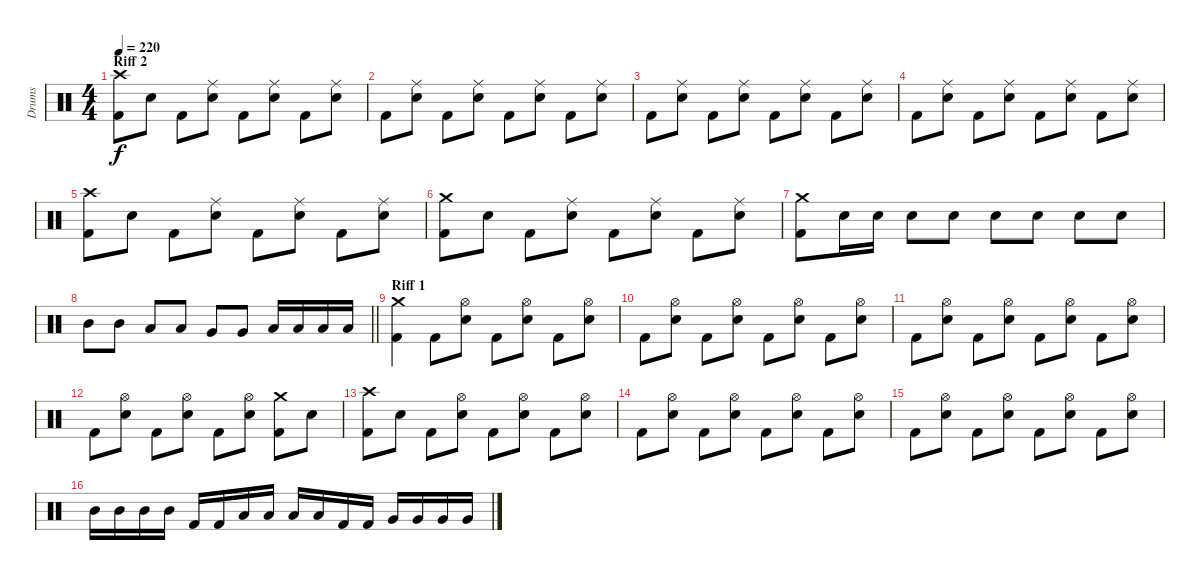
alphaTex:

\track ("Drums" "Drums") {instrument percussion}
\staff {score}
\articulation defaults
\ts (4 4)
\section ("" "Riff 2")
\tempo 220
\clef neutral
\ks c
("Kick (hit) 2" "Crash high (hit)").8{dy f} "Electric Snare (hit)".8 "Kick (hit) 2".8 ("Electric Snare (hit)" "Ride (middle)").8 "Kick (hit) 2".8 ("Electric Snare (hit)" "Ride (middle)").8 "Kick (hit) 2".8 ("Electric Snare (hit)" "Ride (middle)").8 |
"Kick (hit) 2".8 ("Electric Snare (hit)" "Ride (middle)").8 "Kick (hit) 2".8 ("Electric Snare (hit)" "Ride (middle)").8 "Kick (hit) 2".8 ("Electric Snare (hit)" "Ride (middle)").8 "Kick (hit) 2".8 ("Electric Snare (hit)" "Ride (middle)").8 |
"Kick (hit) 2".8 ("Electric Snare (hit)" "Ride (middle)").8 "Kick (hit) 2".8 ("Electric Snare (hit)" "Ride (middle)").8 "Kick (hit) 2".8 ("Electric Snare (hit)" "Ride (middle)").8 "Kick (hit) 2".8 ("Electric Snare (hit)" "Ride (middle)").8 |
"Kick (hit) 2".8 ("Electric Snare (hit)" "Ride (middle)").8 "Kick (hit) 2".8 ("Electric Snare (hit)" "Ride (middle)").8 "Kick (hit) 2".8 ("Electric Snare (hit)" "Ride (middle)").8 "Kick (hit) 2".8 ("Electric Snare (hit)" "Ride (middle)").8 |
("Kick (hit) 2" "Crash high (hit)").8 "Electric Snare (hit)".8 "Kick (hit) 2".8 ("Electric Snare (hit)" "Ride (middle)").8 "Kick (hit) 2".8 ("Electric Snare (hit)" "Ride (middle)").8 "Kick (hit) 2".8 ("Electric Snare (hit)" "Ride (middle)").8 |
("Kick (hit) 2" "Crash medium (hit)").8 "Electric Snare (hit)".8 "Kick (hit) 2".8 ("Electric Snare (hit)" "Ride (middle)").8 "Kick (hit) 2".8 ("Electric Snare (hit)" "Ride (middle)").8 "Kick (hit) 2".8 ("Electric Snare (hit)" "Ride (middle)").8 |
("Kick (hit) 2" "Crash medium (hit)").8 "Electric Snare (hit)".16 "Electric Snare (hit)".16 "Electric Snare (hit)".8 "Electric Snare (hit)".8 "Electric Snare (hit)".8 "Electric Snare (hit)".8 "Electric Snare (hit)".8 "Electric Snare (hit)".8 |
\barLineRight lightlight "Mid Tom (hit)".8 "Mid Tom (hit)".8 "Low Tom (hit)".8 "Low Tom (hit)".8 "Very Low Tom (hit)".8 "Very Low Tom (hit)".8 "Low Floor Tom (hit)".16 "Low Floor Tom (hit)".16 "Low Floor Tom (hit)".16 "Low Floor Tom (hit)".16
|
\section ("" "Riff 1")
("Crash medium (hit)" "Kick (hit) 2").4 "Kick (hit) 2".8 ("Electric Snare (hit)" "Hi-Hat (open)").8 "Kick (hit) 2".8 ("Electric Snare (hit)" "Hi-Hat (open)").8 "Kick (hit) 2".8 ("Electric Snare (hit)" "Hi-Hat (open)").8 |
"Kick (hit) 2".8 ("Electric Snare (hit)" "Hi-Hat (open)").8 "Kick (hit) 2".8 ("Electric Snare (hit)" "Hi-Hat (open)").8 "Kick (hit) 2".8 ("Electric Snare (hit)" "Hi-Hat (open)").8 "Kick (hit) 2".8 ("Electric Snare (hit)" "Hi-Hat (open)").8 |
"Kick (hit) 2".8 ("Electric Snare (hit)" "Hi-Hat (open)").8 "Kick (hit) 2".8 ("Electric Snare (hit)" "Hi-Hat (open)").8 "Kick (hit) 2".8 ("Electric Snare (hit)" "Hi-Hat (open)").8 "Kick (hit) 2".8 ("Electric Snare (hit)" "Hi-Hat (open)").8 |
"Kick (hit) 2".8 ("Electric Snare (hit)" "Hi-Hat (open)").8 "Kick (hit) 2".8 ("Electric Snare (hit)" "Hi-Hat (open)").8 "Kick (hit) 2".8 ("Electric Snare (hit)" "Hi-Hat (open)").8 ("Kick (hit) 2" "Crash medium (hit)").8 "Electric Snare (hit)".8 |
("Kick (hit) 2" "Crash high (hit)").8 "Electric Snare (hit)".8 "Kick (hit) 2".8 ("Electric Snare (hit)" "Hi-Hat (open)").8 "Kick (hit) 2".8 ("Electric Snare (hit)" "Hi-Hat (open)").8 "Kick (hit) 2".8 ("Electric Snare (hit)" "Hi-Hat (open)").8 |
"Kick (hit) 2".8 ("Electric Snare (hit)" "Hi-Hat (open)").8 "Kick (hit) 2".8 ("Electric Snare (hit)" "Hi-Hat (open)").8 "Kick (hit) 2".8 ("Electric Snare (hit)" "Hi-Hat (open)").8 "Kick (hit) 2".8 ("Electric Snare (hit)" "Hi-Hat (open)").8 |
"Kick (hit) 2".8 ("Electric Snare (hit)" "Hi-Hat (open)").8 "Kick (hit) 2".8 ("Electric Snare (hit)" "Hi-Hat (open)").8 "Kick (hit) 2".8 ("Electric Snare (hit)" "Hi-Hat (open)").8 "Kick (hit) 2".8 ("Electric Snare (hit)" "Hi-Hat (open)").8 |
"Mid Tom (hit)".16 "Mid Tom (hit)".16 "Mid Tom (hit)".16 "Mid Tom (hit)".16 "Kick (hit) 2".16 "Kick (hit) 2".16 "Low Tom (hit)".16 "Low Tom (hit)".16 "Low Tom (hit)".16 "Low Tom (hit)".16 "Kick (hit) 2".16 "Kick (hit) 2".16 "Very Low Tom (hit)".16 "Very Low Tom (hit)".16 "Very Low Tom (hit)".16 "Very Low Tom (hit)".16
